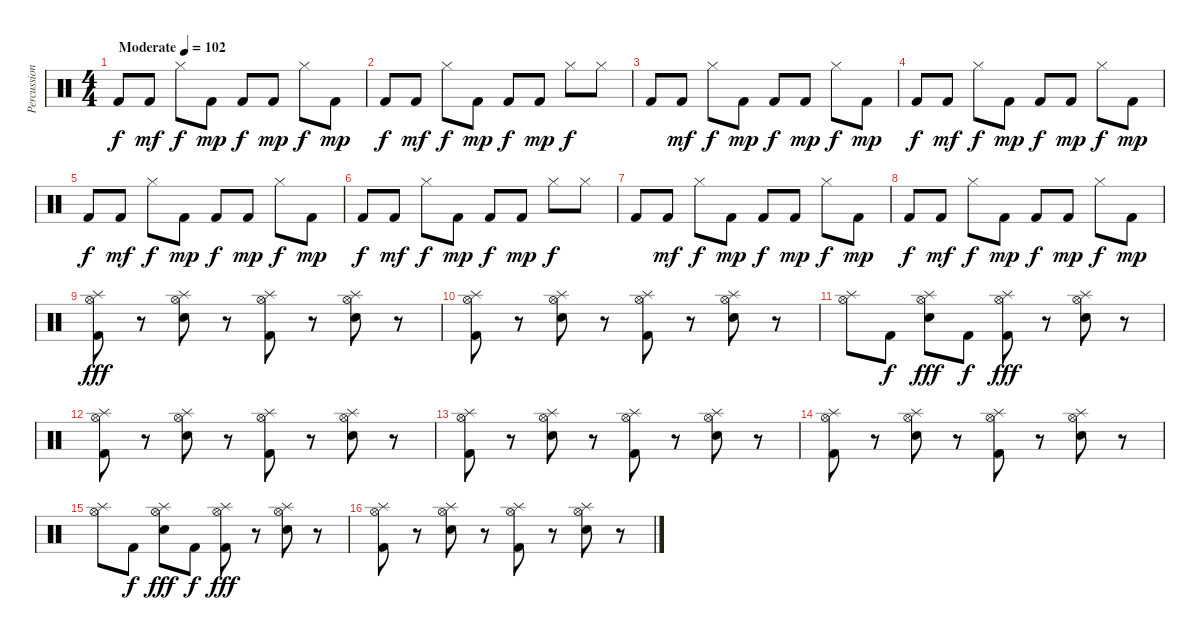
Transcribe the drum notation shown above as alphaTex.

\track ("Percussion" "Percussion") {instrument percussion}
\staff {score}
\articulation defaults
\ts (4 4)
\tempo (102 "Moderate")
\clef neutral
\ks c "Kick (hit) 2".8{dy f} "Kick (hit) 2".8{dy mf} "Hi-Hat (closed)".8{dy f} "Kick (hit) 2".8{dy mp} "Kick (hit) 2".8{dy f} "Kick (hit) 2".8{dy mp} "Hi-Hat (closed)".8{dy f} "Kick (hit) 2".8{dy mp}
|
"Kick (hit) 2".8{dy f} "Kick (hit) 2".8{dy mf} "Hi-Hat (closed)".8{dy f} "Kick (hit) 2".8{dy mp} "Kick (hit) 2".8{dy f} "Kick (hit) 2".8{dy mp} "Hi-Hat (closed)".8{dy f} "Hi-Hat (closed)".8 |
"Kick (hit) 2".8 "Kick (hit) 2".8{dy mf} "Hi-Hat (closed)".8{dy f} "Kick (hit) 2".8{dy mp} "Kick (hit) 2".8{dy f} "Kick (hit) 2".8{dy mp} "Hi-Hat (closed)".8{dy f} "Kick (hit) 2".8{dy mp} |
"Kick (hit) 2".8{dy f} "Kick (hit) 2".8{dy mf} "Hi-Hat (closed)".8{dy f} "Kick (hit) 2".8{dy mp} "Kick (hit) 2".8{dy f} "Kick (hit) 2".8{dy mp} "Hi-Hat (closed)".8{dy f} "Kick (hit) 2".8{dy mp} |
"Kick (hit) 2".8{dy f} "Kick (hit) 2".8{dy mf} "Hi-Hat (closed)".8{dy f} "Kick (hit) 2".8{dy mp} "Kick (hit) 2".8{dy f} "Kick (hit) 2".8{dy mp} "Hi-Hat (closed)".8{dy f} "Kick (hit) 2".8{dy mp} |
"Kick (hit) 2".8{dy f} "Kick (hit) 2".8{dy mf} "Hi-Hat (closed)".8{dy f} "Kick (hit) 2".8{dy mp} "Kick (hit) 2".8{dy f} "Kick (hit) 2".8{dy mp} "Hi-Hat (closed)".8{dy f} "Hi-Hat (closed)".8 |
"Kick (hit) 2".8 "Kick (hit) 2".8{dy mf} "Hi-Hat (closed)".8{dy f} "Kick (hit) 2".8{dy mp} "Kick (hit) 2".8{dy f} "Kick (hit) 2".8{dy mp} "Hi-Hat (closed)".8{dy f} "Kick (hit) 2".8{dy mp} |
"Kick (hit) 2".8{dy f} "Kick (hit) 2".8{dy mf} "Hi-Hat (closed)".8{dy f} "Kick (hit) 2".8{dy mp} "Kick (hit) 2".8{dy f} "Kick (hit) 2".8{dy mp} "Hi-Hat (closed)".8{dy f} "Kick (hit) 2".8{dy mp} |
("Splash (hit)" "Hi-Hat (open)" "Kick (hit) 2").8{dy fff} r.8 ("Splash (hit)" "Hi-Hat (open)" "Electric Snare (hit)").8 r.8 ("Splash (hit)" "Hi-Hat (open)" "Kick (hit) 2").8 r.8 ("Splash (hit)" "Hi-Hat (open)" "Electric Snare (hit)").8 r.8 |
("Splash (hit)" "Hi-Hat (open)" "Kick (hit) 2").8 r.8 ("Splash (hit)" "Hi-Hat (open)" "Electric Snare (hit)").8 r.8 ("Splash (hit)" "Hi-Hat (open)" "Kick (hit) 2").8 r.8 ("Splash (hit)" "Hi-Hat (open)" "Electric Snare (hit)").8 r.8 |
("Splash (hit)" "Hi-Hat (open)").8 "Kick (hit) 2".8{dy f} ("Splash (hit)" "Hi-Hat (open)" "Electric Snare (hit)").8{dy fff} "Kick (hit) 2".8{dy f} ("Splash (hit)" "Hi-Hat (open)" "Kick (hit) 2").8{dy fff} r.8 ("Splash (hit)" "Hi-Hat (open)" "Electric Snare (hit)").8 r.8 |
("Splash (hit)" "Hi-Hat (open)" "Kick (hit) 2").8 r.8 ("Splash (hit)" "Hi-Hat (open)" "Electric Snare (hit)").8 r.8 ("Splash (hit)" "Hi-Hat (open)" "Kick (hit) 2").8 r.8 ("Splash (hit)" "Hi-Hat (open)" "Electric Snare (hit)").8 r.8 |
("Splash (hit)" "Hi-Hat (open)" "Kick (hit) 2").8 r.8 ("Splash (hit)" "Hi-Hat (open)" "Electric Snare (hit)").8 r.8 ("Splash (hit)" "Hi-Hat (open)" "Kick (hit) 2").8 r.8 ("Splash (hit)" "Hi-Hat (open)" "Electric Snare (hit)").8 r.8 |
("Splash (hit)" "Hi-Hat (open)" "Kick (hit) 2").8 r.8 ("Splash (hit)" "Hi-Hat (open)" "Electric Snare (hit)").8 r.8 ("Splash (hit)" "Hi-Hat (open)" "Kick (hit) 2").8 r.8 ("Splash (hit)" "Hi-Hat (open)" "Electric Snare (hit)").8 r.8 |
("Splash (hit)" "Hi-Hat (open)").8 "Kick (hit) 2".8{dy f} ("Splash (hit)" "Hi-Hat (open)" "Electric Snare (hit)").8{dy fff} "Kick (hit) 2".8{dy f} ("Splash (hit)" "Hi-Hat (open)" "Kick (hit) 2").8{dy fff} r.8 ("Splash (hit)" "Hi-Hat (open)" "Electric Snare (hit)").8 r.8 |
("Splash (hit)" "Hi-Hat (open)" "Kick (hit) 2").8 r.8 ("Splash (hit)" "Hi-Hat (open)" "Electric Snare (hit)").8 r.8 ("Splash (hit)" "Hi-Hat (open)" "Kick (hit) 2").8 r.8 ("Splash (hit)" "Hi-Hat (open)" "Electric Snare (hit)").8 r.8
